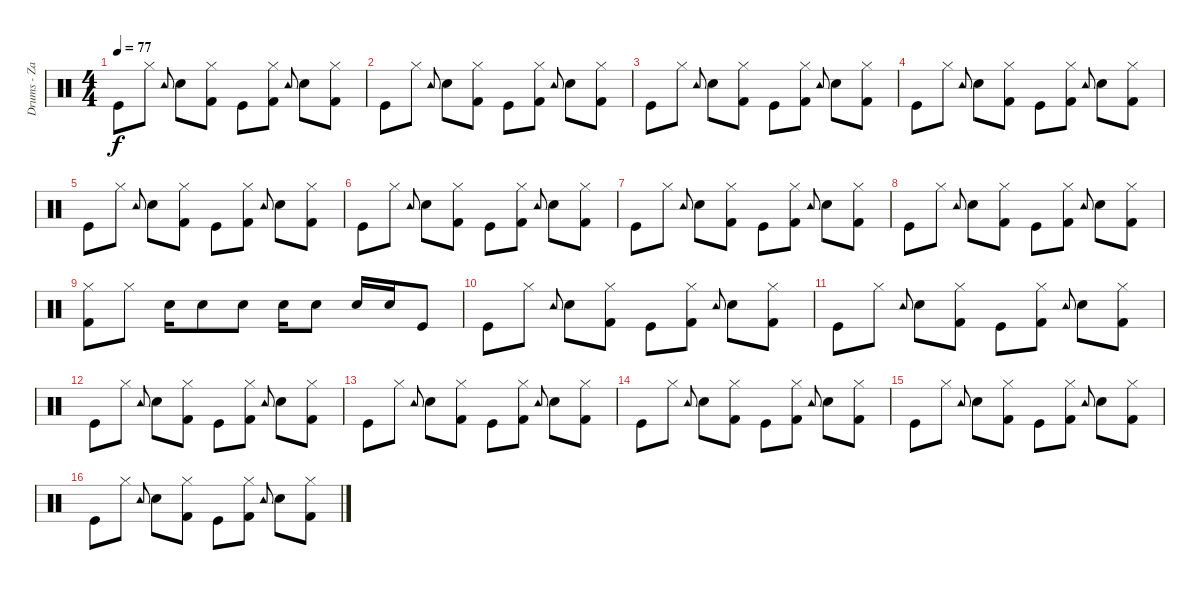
\track ("Drums - Zakk Starkey" "Drums - Za") {instrument percussion}
\staff {score}
\articulation defaults
\ts (4 4)
\tempo 77
\clef neutral
\ks c "Kick (hit)".8{dy f} "Hi-Hat (closed)".8 "Tambourine (hit)".8{gr onbeat} "Snare (hit) 2".8
("Hi-Hat (closed)" "Kick (hit) 2").8 "Kick (hit)".8 ("Hi-Hat (closed)" "Kick (hit) 2").8 "Tambourine (hit)".8{gr onbeat} "Snare (hit) 2".8 ("Hi-Hat (closed)" "Kick (hit) 2").8 |
"Kick (hit)".8 "Hi-Hat (closed)".8 "Tambourine (hit)".8{gr onbeat} "Snare (hit) 2".8 ("Hi-Hat (closed)" "Kick (hit) 2").8 "Kick (hit)".8 ("Hi-Hat (closed)" "Kick (hit) 2").8 "Tambourine (hit)".8{gr onbeat} "Snare (hit) 2".8 ("Hi-Hat (closed)" "Kick (hit) 2").8 |
"Kick (hit)".8 "Hi-Hat (closed)".8 "Tambourine (hit)".8{gr onbeat} "Snare (hit) 2".8 ("Hi-Hat (closed)" "Kick (hit) 2").8 "Kick (hit)".8 ("Hi-Hat (closed)" "Kick (hit) 2").8 "Tambourine (hit)".8{gr onbeat} "Snare (hit) 2".8 ("Hi-Hat (closed)" "Kick (hit) 2").8 |
"Kick (hit)".8 "Hi-Hat (closed)".8 "Tambourine (hit)".8{gr onbeat} "Snare (hit) 2".8 ("Hi-Hat (closed)" "Kick (hit) 2").8 "Kick (hit)".8 ("Hi-Hat (closed)" "Kick (hit) 2").8 "Tambourine (hit)".8{gr onbeat} "Snare (hit) 2".8 ("Hi-Hat (closed)" "Kick (hit) 2").8 |
"Kick (hit)".8 "Hi-Hat (closed)".8 "Tambourine (hit)".8{gr onbeat} "Snare (hit) 2".8 ("Hi-Hat (closed)" "Kick (hit) 2").8 "Kick (hit)".8 ("Hi-Hat (closed)" "Kick (hit) 2").8 "Tambourine (hit)".8{gr onbeat} "Snare (hit) 2".8 ("Hi-Hat (closed)" "Kick (hit) 2").8 |
"Kick (hit)".8 "Hi-Hat (closed)".8 "Tambourine (hit)".8{gr onbeat} "Snare (hit) 2".8 ("Hi-Hat (closed)" "Kick (hit) 2").8 "Kick (hit)".8 ("Hi-Hat (closed)" "Kick (hit) 2").8 "Tambourine (hit)".8{gr onbeat} "Snare (hit) 2".8 ("Hi-Hat (closed)" "Kick (hit) 2").8 |
"Kick (hit)".8 "Hi-Hat (closed)".8 "Tambourine (hit)".8{gr onbeat} "Snare (hit) 2".8 ("Hi-Hat (closed)" "Kick (hit) 2").8 "Kick (hit)".8 ("Hi-Hat (closed)" "Kick (hit) 2").8 "Tambourine (hit)".8{gr onbeat} "Snare (hit) 2".8 ("Hi-Hat (closed)" "Kick (hit) 2").8 |
"Kick (hit)".8 "Hi-Hat (closed)".8 "Tambourine (hit)".8{gr onbeat} "Snare (hit) 2".8 ("Hi-Hat (closed)" "Kick (hit) 2").8 "Kick (hit)".8 ("Hi-Hat (closed)" "Kick (hit) 2").8 "Tambourine (hit)".8{gr onbeat} "Snare (hit) 2".8 ("Hi-Hat (closed)" "Kick (hit) 2").8 |
("Hi-Hat (closed)" "Kick (hit) 2").8 "Hi-Hat (closed)".8 "Snare (hit) 2".16 "Snare (hit) 2".8 "Snare (hit) 2".8 "Snare (hit) 2".16 "Snare (hit) 2".8 "Snare (hit) 2".16 "Snare (hit) 2".16 "Kick (hit)".8 |
"Kick (hit)".8 "Hi-Hat (closed)".8 "Tambourine (hit)".8{gr onbeat} "Snare (hit) 2".8 ("Hi-Hat (closed)" "Kick (hit) 2").8 "Kick (hit)".8 ("Hi-Hat (closed)" "Kick (hit) 2").8 "Tambourine (hit)".8{gr onbeat} "Snare (hit) 2".8 ("Hi-Hat (closed)" "Kick (hit) 2").8 |
"Kick (hit)".8 "Hi-Hat (closed)".8 "Tambourine (hit)".8{gr onbeat} "Snare (hit) 2".8 ("Hi-Hat (closed)" "Kick (hit) 2").8 "Kick (hit)".8 ("Hi-Hat (closed)" "Kick (hit) 2").8 "Tambourine (hit)".8{gr onbeat} "Snare (hit) 2".8 ("Hi-Hat (closed)" "Kick (hit) 2").8 |
"Kick (hit)".8 "Hi-Hat (closed)".8 "Tambourine (hit)".8{gr onbeat} "Snare (hit) 2".8 ("Hi-Hat (closed)" "Kick (hit) 2").8 "Kick (hit)".8 ("Hi-Hat (closed)" "Kick (hit) 2").8 "Tambourine (hit)".8{gr onbeat} "Snare (hit) 2".8 ("Hi-Hat (closed)" "Kick (hit) 2").8 |
"Kick (hit)".8 "Hi-Hat (closed)".8 "Tambourine (hit)".8{gr onbeat} "Snare (hit) 2".8 ("Hi-Hat (closed)" "Kick (hit) 2").8 "Kick (hit)".8 ("Hi-Hat (closed)" "Kick (hit) 2").8 "Tambourine (hit)".8{gr onbeat} "Snare (hit) 2".8 ("Hi-Hat (closed)" "Kick (hit) 2").8 |
"Kick (hit)".8 "Hi-Hat (closed)".8 "Tambourine (hit)".8{gr onbeat} "Snare (hit) 2".8 ("Hi-Hat (closed)" "Kick (hit) 2").8 "Kick (hit)".8 ("Hi-Hat (closed)" "Kick (hit) 2").8 "Tambourine (hit)".8{gr onbeat} "Snare (hit) 2".8 ("Hi-Hat (closed)" "Kick (hit) 2").8 |
"Kick (hit)".8 "Hi-Hat (closed)".8 "Tambourine (hit)".8{gr onbeat} "Snare (hit) 2".8 ("Hi-Hat (closed)" "Kick (hit) 2").8 "Kick (hit)".8 ("Hi-Hat (closed)" "Kick (hit) 2").8 "Tambourine (hit)".8{gr onbeat} "Snare (hit) 2".8 ("Hi-Hat (closed)" "Kick (hit) 2").8 |
"Kick (hit)".8 "Hi-Hat (closed)".8 "Tambourine (hit)".8{gr onbeat} "Snare (hit) 2".8 ("Hi-Hat (closed)" "Kick (hit) 2").8 "Kick (hit)".8 ("Hi-Hat (closed)" "Kick (hit) 2").8 "Tambourine (hit)".8{gr onbeat} "Snare (hit) 2".8 ("Hi-Hat (closed)" "Kick (hit) 2").8
